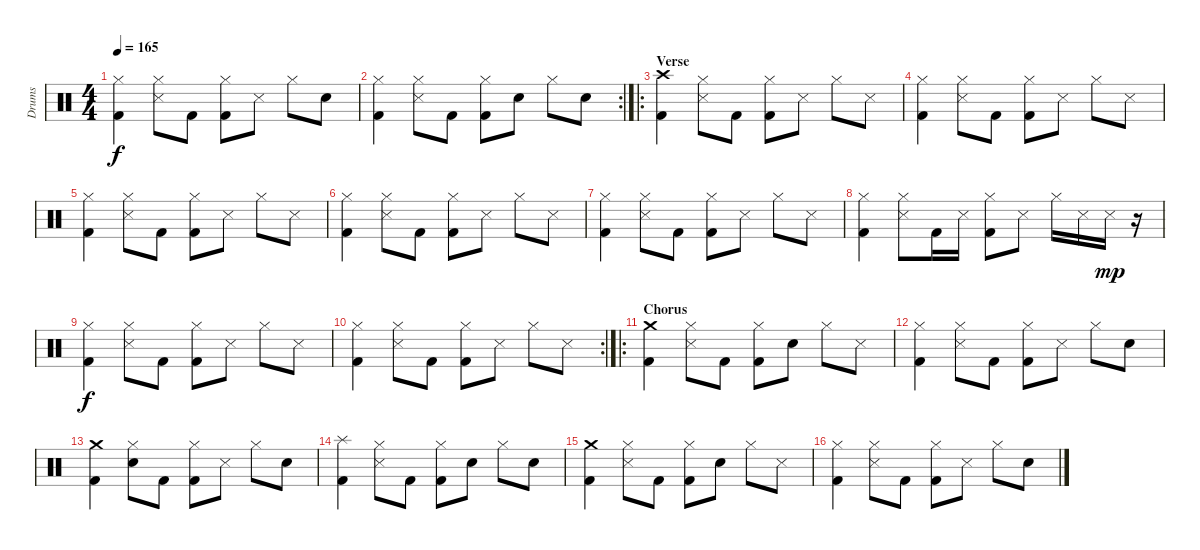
\track ("Drums" "Drums") {instrument percussion}
\staff {score}
\articulation defaults
\ts (4 4)
\tempo 165
\clef neutral
\ks c
("Kick (hit) 2" "Hi-Hat (closed)").4{dy f} ("Snare (side stick) 3" "Hi-Hat (closed)").8 "Kick (hit) 2".8 ("Kick (hit) 2" "Hi-Hat (closed)").8 "Snare (side stick) 3".8 "Hi-Hat (closed)".8 "Snare (hit) 2".8 |
\rc 2
("Kick (hit) 2" "Hi-Hat (closed)").4 ("Snare (side stick) 3" "Hi-Hat (closed)").8 "Kick (hit) 2".8 ("Kick (hit) 2" "Hi-Hat (closed)").8 "Snare (hit) 2".8 "Hi-Hat (closed)".8 "Snare (hit) 2".8 |
\ro
\section ("" "Verse")
("Kick (hit) 2" "Crash high (hit)").4 ("Snare (side stick) 3" "Hi-Hat (closed)").8 "Kick (hit) 2".8 ("Kick (hit) 2" "Hi-Hat (closed)").8 "Snare (side stick) 3".8 "Hi-Hat (closed)".8 "Snare (side stick) 3".8 |
("Kick (hit) 2" "Hi-Hat (closed)").4 ("Snare (side stick) 3" "Hi-Hat (closed)").8 "Kick (hit) 2".8 ("Kick (hit) 2" "Hi-Hat (closed)").8 "Snare (side stick) 3".8 "Hi-Hat (closed)".8 "Snare (side stick) 3".8 |
("Kick (hit) 2" "Hi-Hat (closed)").4 ("Snare (side stick) 3" "Hi-Hat (closed)").8 "Kick (hit) 2".8 ("Kick (hit) 2" "Hi-Hat (closed)").8 "Snare (side stick) 3".8 "Hi-Hat (closed)".8 "Snare (side stick) 3".8 |
("Kick (hit) 2" "Hi-Hat (closed)").4 ("Snare (side stick) 3" "Hi-Hat (closed)").8 "Kick (hit) 2".8 ("Kick (hit) 2" "Hi-Hat (closed)").8 "Snare (side stick) 3".8 "Hi-Hat (closed)".8 "Snare (side stick) 3".8 |
("Kick (hit) 2" "Hi-Hat (closed)").4 ("Snare (side stick) 3" "Hi-Hat (closed)").8 "Kick (hit) 2".8 ("Kick (hit) 2" "Hi-Hat (closed)").8 "Snare (side stick) 3".8 "Hi-Hat (closed)".8 "Snare (side stick) 3".8 |
("Kick (hit) 2" "Hi-Hat (closed)").4 ("Snare (side stick) 3" "Hi-Hat (closed)").8 "Kick (hit) 2".16 "Snare (side stick) 3".16 ("Kick (hit) 2" "Hi-Hat (closed)").8 "Snare (side stick) 3".8 "Hi-Hat (closed)".16 "Snare (side stick) 3".16 "Snare (side stick) 3".16{dy mp} r.16 |
("Kick (hit) 2" "Hi-Hat (closed)").4{dy f} ("Snare (side stick) 3" "Hi-Hat (closed)").8 "Kick (hit) 2".8 ("Kick (hit) 2" "Hi-Hat (closed)").8 "Snare (side stick) 3".8 "Hi-Hat (closed)".8 "Snare (side stick) 3".8 |
\rc 2
("Kick (hit) 2" "Hi-Hat (closed)").4 ("Snare (side stick) 3" "Hi-Hat (closed)").8 "Kick (hit) 2".8 ("Kick (hit) 2" "Hi-Hat (closed)").8 "Snare (side stick) 3".8 "Hi-Hat (closed)".8 "Snare (side stick) 3".8 |
\ro
\section ("" "Chorus")
("Kick (hit) 2" "Crash medium (hit)").4 ("Snare (side stick) 3" "Hi-Hat (closed)").8 "Kick (hit) 2".8 ("Kick (hit) 2" "Hi-Hat (closed)").8 "Snare (hit) 2".8 "Hi-Hat (closed)".8 "Snare (side stick) 3".8 |
("Kick (hit) 2" "Hi-Hat (closed)").4 ("Snare (side stick) 3" "Hi-Hat (closed)").8 "Kick (hit) 2".8 ("Kick (hit) 2" "Hi-Hat (closed)").8 "Snare (side stick) 3".8 "Hi-Hat (closed)".8 "Snare (hit) 2".8 |
("Kick (hit) 2" "Crash medium (hit)").4 ("Snare (hit) 2" "Hi-Hat (closed)").8 "Kick (hit) 2".8 ("Kick (hit) 2" "Hi-Hat (closed)").8 "Snare (side stick) 3".8 "Hi-Hat (closed)".8 "Snare (hit) 2".8 |
("Kick (hit) 2" "Splash (hit)").4 ("Snare (side stick) 3" "Hi-Hat (closed)").8 "Kick (hit) 2".8 ("Kick (hit) 2" "Hi-Hat (closed)").8 "Snare (hit) 2".8 "Hi-Hat (closed)".8 "Snare (hit) 2".8 |
("Kick (hit) 2" "Crash medium (hit)").4 ("Snare (side stick) 3" "Hi-Hat (closed)").8 "Kick (hit) 2".8 ("Kick (hit) 2" "Hi-Hat (closed)").8 "Snare (hit) 2".8 "Hi-Hat (closed)".8 "Snare (side stick) 3".8 |
("Kick (hit) 2" "Hi-Hat (closed)").4 ("Snare (side stick) 3" "Hi-Hat (closed)").8 "Kick (hit) 2".8 ("Kick (hit) 2" "Hi-Hat (closed)").8 "Snare (side stick) 3".8 "Hi-Hat (closed)".8 "Snare (hit) 2".8
